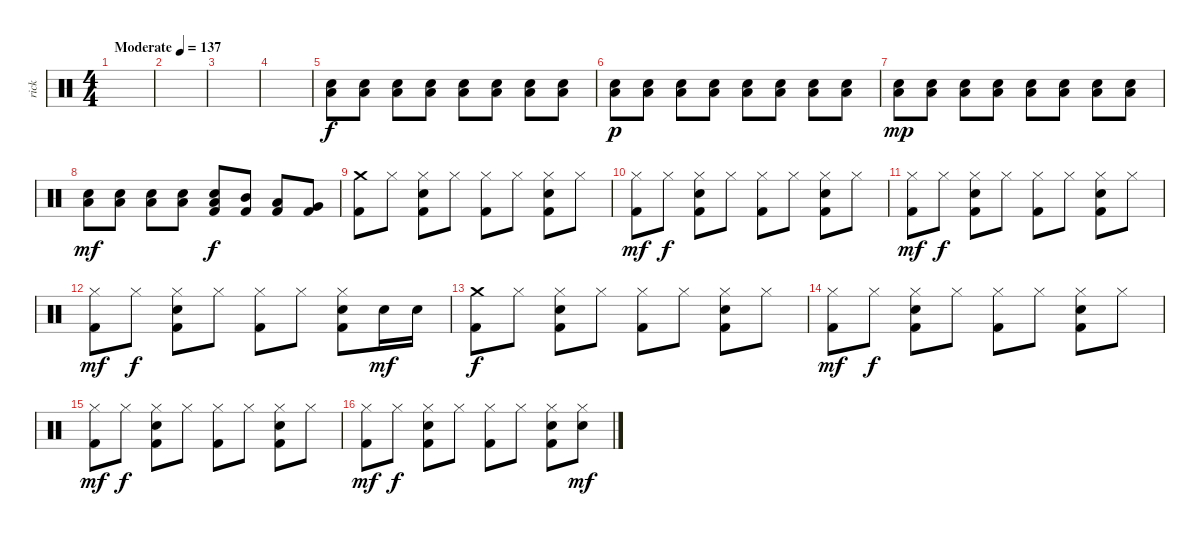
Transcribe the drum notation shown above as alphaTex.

\track ("rick" "rick") {instrument percussion}
\staff {score}
\articulation defaults
\ts (4 4)
\tempo (137 "Moderate")
\clef neutral
\ks c
|
|
|
|
("Low Tom (hit)" "Electric Snare (hit)").8 ("Low Tom (hit)" "Electric Snare (hit)").8 ("Low Tom (hit)" "Electric Snare (hit)").8 ("Low Tom (hit)" "Electric Snare (hit)").8 ("Low Tom (hit)" "Electric Snare (hit)").8 ("Low Tom (hit)" "Electric Snare (hit)").8 ("Low Tom (hit)" "Electric Snare (hit)").8 ("Low Tom (hit)" "Electric Snare (hit)").8 |
("Low Tom (hit)" "Electric Snare (hit)").8{dy p} ("Low Tom (hit)" "Electric Snare (hit)").8 ("Low Tom (hit)" "Electric Snare (hit)").8 ("Low Tom (hit)" "Electric Snare (hit)").8 ("Low Tom (hit)" "Electric Snare (hit)").8 ("Low Tom (hit)" "Electric Snare (hit)").8 ("Low Tom (hit)" "Electric Snare (hit)").8 ("Low Tom (hit)" "Electric Snare (hit)").8 |
("Low Tom (hit)" "Electric Snare (hit)").8{dy mp} ("Low Tom (hit)" "Electric Snare (hit)").8 ("Low Tom (hit)" "Electric Snare (hit)").8 ("Low Tom (hit)" "Electric Snare (hit)").8 ("Low Tom (hit)" "Electric Snare (hit)").8 ("Low Tom (hit)" "Electric Snare (hit)").8 ("Low Tom (hit)" "Electric Snare (hit)").8 ("Low Tom (hit)" "Electric Snare (hit)").8 |
("Low Tom (hit)" "Electric Snare (hit)").8{dy mf} ("Low Tom (hit)" "Electric Snare (hit)").8 ("Low Tom (hit)" "Electric Snare (hit)").8 ("Low Tom (hit)" "Electric Snare (hit)").8 ("Low Tom (hit)" "Electric Snare (hit)" "Kick (hit) 2").8{dy f} ("Mid Tom (hit)" "Kick (hit) 2").8 ("Low Tom (hit)" "Kick (hit) 2").8 ("Very Low Tom (hit)" "Kick (hit) 2").8 |
("Crash medium (hit)" "Kick (hit) 2").8 "Hi-Hat (closed)".8 ("Hi-Hat (closed)" "Electric Snare (hit)" "Kick (hit) 2").8 "Hi-Hat (closed)".8 ("Hi-Hat (closed)" "Kick (hit) 2").8 "Hi-Hat (closed)".8 ("Hi-Hat (closed)" "Electric Snare (hit)" "Kick (hit) 2").8 "Hi-Hat (closed)".8 |
("Hi-Hat (closed)" "Kick (hit) 2").8{dy mf} "Hi-Hat (closed)".8{dy f} ("Hi-Hat (closed)" "Electric Snare (hit)" "Kick (hit) 2").8 "Hi-Hat (closed)".8 ("Hi-Hat (closed)" "Kick (hit) 2").8 "Hi-Hat (closed)".8 ("Hi-Hat (closed)" "Electric Snare (hit)" "Kick (hit) 2").8 "Hi-Hat (closed)".8 |
("Hi-Hat (closed)" "Kick (hit) 2").8{dy mf} "Hi-Hat (closed)".8{dy f} ("Hi-Hat (closed)" "Electric Snare (hit)" "Kick (hit) 2").8 "Hi-Hat (closed)".8 ("Hi-Hat (closed)" "Kick (hit) 2").8 "Hi-Hat (closed)".8 ("Hi-Hat (closed)" "Electric Snare (hit)" "Kick (hit) 2").8 "Hi-Hat (closed)".8 |
("Hi-Hat (closed)" "Kick (hit) 2").8{dy mf} "Hi-Hat (closed)".8{dy f} ("Hi-Hat (closed)" "Electric Snare (hit)" "Kick (hit) 2").8 "Hi-Hat (closed)".8 ("Hi-Hat (closed)" "Kick (hit) 2").8 "Hi-Hat (closed)".8 ("Hi-Hat (closed)" "Electric Snare (hit)" "Kick (hit) 2").8 "Electric Snare (hit)".16{dy mf} "Electric Snare (hit)".16 |
("Crash medium (hit)" "Kick (hit) 2").8{dy f} "Hi-Hat (closed)".8 ("Hi-Hat (closed)" "Electric Snare (hit)" "Kick (hit) 2").8 "Hi-Hat (closed)".8 ("Hi-Hat (closed)" "Kick (hit) 2").8 "Hi-Hat (closed)".8 ("Hi-Hat (closed)" "Electric Snare (hit)" "Kick (hit) 2").8 "Hi-Hat (closed)".8 |
("Hi-Hat (closed)" "Kick (hit) 2").8{dy mf} "Hi-Hat (closed)".8{dy f} ("Hi-Hat (closed)" "Electric Snare (hit)" "Kick (hit) 2").8 "Hi-Hat (closed)".8 ("Hi-Hat (closed)" "Kick (hit) 2").8 "Hi-Hat (closed)".8 ("Hi-Hat (closed)" "Electric Snare (hit)" "Kick (hit) 2").8 "Hi-Hat (closed)".8 |
("Hi-Hat (closed)" "Kick (hit) 2").8{dy mf} "Hi-Hat (closed)".8{dy f} ("Hi-Hat (closed)" "Electric Snare (hit)" "Kick (hit) 2").8 "Hi-Hat (closed)".8 ("Hi-Hat (closed)" "Kick (hit) 2").8 "Hi-Hat (closed)".8 ("Hi-Hat (closed)" "Electric Snare (hit)" "Kick (hit) 2").8 "Hi-Hat (closed)".8 |
("Hi-Hat (closed)" "Kick (hit) 2").8{dy mf} "Hi-Hat (closed)".8{dy f} ("Hi-Hat (closed)" "Electric Snare (hit)" "Kick (hit) 2").8 "Hi-Hat (closed)".8 ("Hi-Hat (closed)" "Kick (hit) 2").8 "Hi-Hat (closed)".8 ("Hi-Hat (closed)" "Electric Snare (hit)" "Kick (hit) 2").8 ("Hi-Hat (closed)" "Electric Snare (hit)").8{dy mf}
